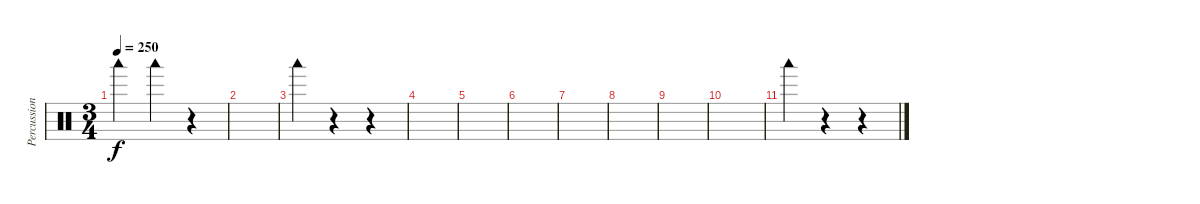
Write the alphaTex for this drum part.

\track ("Percussion" "Percussion") {instrument percussion}
\staff {score}
\articulation defaults
\ts (3 4)
\tempo 250
\clef neutral
\ks c "Woodblock low (hit)".4{dy f} "Woodblock low (hit)".4
r.4 |
|
"Woodblock low (hit)".4 r.4 r.4 |
|
|
|
|
|
|
|
"Woodblock low (hit)".4 r.4 r.4
